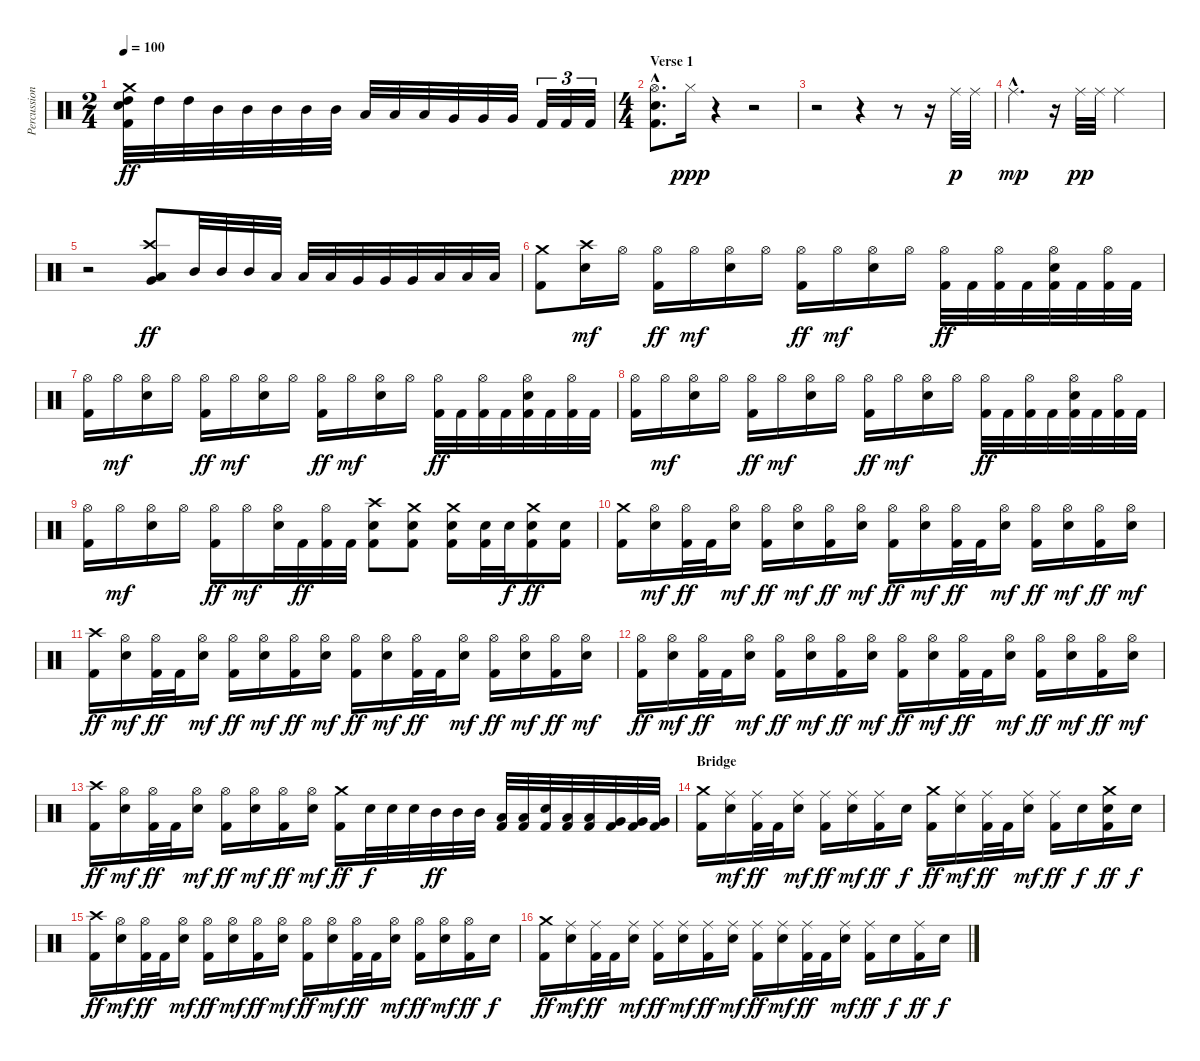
\track ("Percussion" "Percussion") {instrument percussion}
\staff {score}
\articulation defaults
\ts (2 4)
\tempo 100
\clef neutral
\ks c
("Crash medium (hit)" "High Tom (hit)" "Snare (hit) 2" "Kick (hit) 2").32{dy ff} "High Tom (hit)".32 "High Tom (hit)".32 "Mid Tom (hit)".32 "Mid Tom (hit)".32 "Mid Tom (hit)".32 "Mid Tom (hit)".32 "Mid Tom (hit)".32 "Low Tom (hit)".32 "Low Tom (hit)".32 "Low Tom (hit)".32 "Very Low Tom (hit)".32 "Very Low Tom (hit)".32 "Very Low Tom (hit)".32 "Kick (hit) 2".32{tu (3 2)} "Kick (hit) 2".32{tu (3 2)} "Kick (hit) 2".32{tu (3 2)} |
\ts (4 4)
\section ("" "Verse 1")
("Hi-Hat (open)"{hac} "Snare (hit) 2"{hac} "Kick (hit) 2"{hac}).8{d} "Hi-Hat (closed)".16{dy ppp} r.4 r.2 |
r.2 r.4 r.8 r.16 "Ride (middle)".32{dy p} "Ride (middle)".32 |
"Ride (middle)"{hac}.4{d dy mp} r.16 "Ride (middle)".32{dy pp} "Ride (middle)".32 "Ride (middle)".2 |
r.2 ("Crash high (hit)" "Very Low Tom (hit)" "Low Floor Tom (hit)").8{dy ff} "Mid Tom (hit)".32 "Mid Tom (hit)".32 "Mid Tom (hit)".32 "Low Tom (hit)".32 "Low Tom (hit)".32 "Low Tom (hit)".32 "Very Low Tom (hit)".32 "Very Low Tom (hit)".32 "Very Low Tom (hit)".32 "Low Floor Tom (hit)".32 "Low Floor Tom (hit)".32 "Low Floor Tom (hit)".32 |
("Crash medium (hit)" "Kick (hit) 2").8 ("Crash high (hit)" "Snare (hit) 2").16{dy mf} "Hi-Hat (open)".16 ("Hi-Hat (open)" "Kick (hit) 2").16{dy ff} "Hi-Hat (open)".16{dy mf} ("Hi-Hat (open)" "Snare (hit) 2").16 "Hi-Hat (open)".16 ("Hi-Hat (open)" "Kick (hit) 2").16{dy ff} "Hi-Hat (open)".16{dy mf} ("Hi-Hat (open)" "Snare (hit) 2").16 "Hi-Hat (open)".16 ("Hi-Hat (open)" "Kick (hit) 2").32{dy ff} "Kick (hit) 2".32 ("Hi-Hat (open)" "Kick (hit) 2").32 "Kick (hit) 2".32 ("Hi-Hat (open)" "Snare (hit) 2" "Kick (hit) 2").32 "Kick (hit) 2".32 ("Hi-Hat (open)" "Kick (hit) 2").32 "Kick (hit) 2".32 |
("Hi-Hat (open)" "Kick (hit) 2").16 "Hi-Hat (open)".16{dy mf} ("Hi-Hat (open)" "Snare (hit) 2").16 "Hi-Hat (open)".16 ("Hi-Hat (open)" "Kick (hit) 2").16{dy ff} "Hi-Hat (open)".16{dy mf} ("Hi-Hat (open)" "Snare (hit) 2").16 "Hi-Hat (open)".16 ("Hi-Hat (open)" "Kick (hit) 2").16{dy ff} "Hi-Hat (open)".16{dy mf} ("Hi-Hat (open)" "Snare (hit) 2").16 "Hi-Hat (open)".16 ("Hi-Hat (open)" "Kick (hit) 2").32{dy ff} "Kick (hit) 2".32 ("Hi-Hat (open)" "Kick (hit) 2").32 "Kick (hit) 2".32 ("Hi-Hat (open)" "Snare (hit) 2" "Kick (hit) 2").32 "Kick (hit) 2".32 ("Hi-Hat (open)" "Kick (hit) 2").32 "Kick (hit) 2".32 |
("Hi-Hat (open)" "Kick (hit) 2").16 "Hi-Hat (open)".16{dy mf} ("Hi-Hat (open)" "Snare (hit) 2").16 "Hi-Hat (open)".16 ("Hi-Hat (open)" "Kick (hit) 2").16{dy ff} "Hi-Hat (open)".16{dy mf} ("Hi-Hat (open)" "Snare (hit) 2").16 "Hi-Hat (open)".16 ("Hi-Hat (open)" "Kick (hit) 2").16{dy ff} "Hi-Hat (open)".16{dy mf} ("Hi-Hat (open)" "Snare (hit) 2").16 "Hi-Hat (open)".16 ("Hi-Hat (open)" "Kick (hit) 2").32{dy ff} "Kick (hit) 2".32 ("Hi-Hat (open)" "Kick (hit) 2").32 "Kick (hit) 2".32 ("Hi-Hat (open)" "Snare (hit) 2" "Kick (hit) 2").32 "Kick (hit) 2".32 ("Hi-Hat (open)" "Kick (hit) 2").32 "Kick (hit) 2".32 |
("Hi-Hat (open)" "Kick (hit) 2").16 "Hi-Hat (open)".16{dy mf} ("Hi-Hat (open)" "Snare (hit) 2").16 "Hi-Hat (open)".16 ("Hi-Hat (open)" "Kick (hit) 2").16{dy ff} "Hi-Hat (open)".16{dy mf} ("Hi-Hat (open)" "Snare (hit) 2").32 "Kick (hit) 2".32{dy ff} ("Hi-Hat (open)" "Kick (hit) 2").32 "Kick (hit) 2".32 ("Crash high (hit)" "Snare (hit) 2" "Kick (hit) 2").8 ("Crash medium (hit)" "Snare (hit) 2" "Kick (hit) 2").8 ("Crash medium (hit)" "Snare (hit) 2" "Kick (hit) 2").16 ("Snare (hit) 2" "Kick (hit) 2").32 "Snare (hit) 2".32{dy f} ("Crash medium (hit)" "Snare (hit) 2" "Kick (hit) 2").16{dy ff} ("Snare (hit) 2" "Kick (hit) 2").16 |
("Crash medium (hit)" "Kick (hit) 2").16 ("Hi-Hat (open)" "Snare (hit) 2").16{dy mf} ("Hi-Hat (open)" "Kick (hit) 2").32{dy ff} "Kick (hit) 2".32 ("Hi-Hat (open)" "Snare (hit) 2").16{dy mf} ("Hi-Hat (open)" "Kick (hit) 2").16{dy ff} ("Hi-Hat (open)" "Snare (hit) 2").16{dy mf} ("Hi-Hat (open)" "Kick (hit) 2").16{dy ff} ("Hi-Hat (open)" "Snare (hit) 2").16{dy mf} ("Hi-Hat (open)" "Kick (hit) 2").16{dy ff} ("Hi-Hat (open)" "Snare (hit) 2").16{dy mf} ("Hi-Hat (open)" "Kick (hit) 2").32{dy ff} "Kick (hit) 2".32 ("Hi-Hat (open)" "Snare (hit) 2").16{dy mf} ("Hi-Hat (open)" "Kick (hit) 2").16{dy ff} ("Hi-Hat (open)" "Snare (hit) 2").16{dy mf} ("Hi-Hat (open)" "Kick (hit) 2").16{dy ff} ("Hi-Hat (open)" "Snare (hit) 2").16{dy mf} |
("Crash high (hit)" "Kick (hit) 2").16{dy ff} ("Hi-Hat (open)" "Snare (hit) 2").16{dy mf} ("Hi-Hat (open)" "Kick (hit) 2").32{dy ff} "Kick (hit) 2".32 ("Hi-Hat (open)" "Snare (hit) 2").16{dy mf} ("Hi-Hat (open)" "Kick (hit) 2").16{dy ff} ("Hi-Hat (open)" "Snare (hit) 2").16{dy mf} ("Hi-Hat (open)" "Kick (hit) 2").16{dy ff} ("Hi-Hat (open)" "Snare (hit) 2").16{dy mf} ("Hi-Hat (open)" "Kick (hit) 2").16{dy ff} ("Hi-Hat (open)" "Snare (hit) 2").16{dy mf} ("Hi-Hat (open)" "Kick (hit) 2").32{dy ff} "Kick (hit) 2".32 ("Hi-Hat (open)" "Snare (hit) 2").16{dy mf} ("Hi-Hat (open)" "Kick (hit) 2").16{dy ff} ("Hi-Hat (open)" "Snare (hit) 2").16{dy mf} ("Hi-Hat (open)" "Kick (hit) 2").16{dy ff} ("Hi-Hat (open)" "Snare (hit) 2").16{dy mf} |
("Hi-Hat (open)" "Kick (hit) 2").16{dy ff} ("Hi-Hat (open)" "Snare (hit) 2").16{dy mf} ("Hi-Hat (open)" "Kick (hit) 2").32{dy ff} "Kick (hit) 2".32 ("Hi-Hat (open)" "Snare (hit) 2").16{dy mf} ("Hi-Hat (open)" "Kick (hit) 2").16{dy ff} ("Hi-Hat (open)" "Snare (hit) 2").16{dy mf} ("Hi-Hat (open)" "Kick (hit) 2").16{dy ff} ("Hi-Hat (open)" "Snare (hit) 2").16{dy mf} ("Hi-Hat (open)" "Kick (hit) 2").16{dy ff} ("Hi-Hat (open)" "Snare (hit) 2").16{dy mf} ("Hi-Hat (open)" "Kick (hit) 2").32{dy ff} "Kick (hit) 2".32 ("Hi-Hat (open)" "Snare (hit) 2").16{dy mf} ("Hi-Hat (open)" "Kick (hit) 2").16{dy ff} ("Hi-Hat (open)" "Snare (hit) 2").16{dy mf} ("Hi-Hat (open)" "Kick (hit) 2").16{dy ff} ("Hi-Hat (open)" "Snare (hit) 2").16{dy mf} |
("Crash high (hit)" "Kick (hit) 2").16{dy ff} ("Hi-Hat (open)" "Snare (hit) 2").16{dy mf} ("Hi-Hat (open)" "Kick (hit) 2").32{dy ff} "Kick (hit) 2".32 ("Hi-Hat (open)" "Snare (hit) 2").16{dy mf} ("Hi-Hat (open)" "Kick (hit) 2").16{dy ff} ("Hi-Hat (open)" "Snare (hit) 2").16{dy mf} ("Hi-Hat (open)" "Kick (hit) 2").16{dy ff} ("Hi-Hat (open)" "Snare (hit) 2").16{dy mf} ("Crash medium (hit)" "Kick (hit) 2").16{dy ff} "Snare (hit) 2".32{dy f} "Snare (hit) 2".32 "Snare (hit) 2".32 "Mid Tom (hit)".32{dy ff} "Mid Tom (hit)".32 "Mid Tom (hit)".32 ("Low Tom (hit)" "Kick (hit) 2").32 ("Low Tom (hit)" "Kick (hit) 2").32 ("Snare (hit) 2" "Kick (hit) 2").32 ("Low Tom (hit)" "Kick (hit) 2").32 ("Low Tom (hit)" "Kick (hit) 2").32 ("Very Low Tom (hit)" "Kick (hit) 2").32 ("Very Low Tom (hit)" "Kick (hit) 2").32 ("Very Low Tom (hit)" "Kick (hit) 2").32 |
\section ("" "Bridge")
("Crash medium (hit)" "Kick (hit) 2").16 ("Ride (middle)" "Snare (hit) 2").16{dy mf} ("Ride (middle)" "Kick (hit) 2").32{dy ff} "Kick (hit) 2".32 ("Ride (middle)" "Snare (hit) 2").16{dy mf} ("Ride (middle)" "Kick (hit) 2").16{dy ff} ("Ride (middle)" "Snare (hit) 2").16{dy mf} ("Ride (middle)" "Kick (hit) 2").16{dy ff} "Snare (hit) 2".16{dy f} ("Crash medium (hit)" "Kick (hit) 2").16{dy ff} ("Ride (middle)" "Snare (hit) 2").16{dy mf} ("Ride (middle)" "Kick (hit) 2").32{dy ff} "Kick (hit) 2".32 ("Ride (middle)" "Snare (hit) 2").16{dy mf} ("Ride (middle)" "Kick (hit) 2").16{dy ff} "Snare (hit) 2".16{dy f} ("Crash medium (hit)" "Snare (hit) 2" "Kick (hit) 2").16{dy ff} "Snare (hit) 2".16{dy f} |
("Crash high (hit)" "Kick (hit) 2").16{dy ff} ("Hi-Hat (open)" "Snare (hit) 2").16{dy mf} ("Hi-Hat (open)" "Kick (hit) 2").32{dy ff} "Kick (hit) 2".32 ("Hi-Hat (open)" "Snare (hit) 2").16{dy mf} ("Hi-Hat (open)" "Kick (hit) 2").16{dy ff} ("Hi-Hat (open)" "Snare (hit) 2").16{dy mf} ("Hi-Hat (open)" "Kick (hit) 2").16{dy ff} ("Hi-Hat (open)" "Snare (hit) 2").16{dy mf} ("Hi-Hat (open)" "Kick (hit) 2").16{dy ff} ("Hi-Hat (open)" "Snare (hit) 2").16{dy mf} ("Hi-Hat (open)" "Kick (hit) 2").32{dy ff} "Kick (hit) 2".32 ("Hi-Hat (open)" "Snare (hit) 2").16{dy mf} ("Hi-Hat (open)" "Kick (hit) 2").16{dy ff} ("Hi-Hat (open)" "Snare (hit) 2").16{dy mf} ("Hi-Hat (open)" "Kick (hit) 2").16{dy ff} "Snare (hit) 2".16{dy f} |
("Crash medium (hit)" "Kick (hit) 2").16{dy ff} ("Ride (middle)" "Snare (hit) 2").16{dy mf} ("Ride (middle)" "Kick (hit) 2").32{dy ff} "Kick (hit) 2".32 ("Ride (middle)" "Snare (hit) 2").16{dy mf} ("Ride (middle)" "Kick (hit) 2").16{dy ff} ("Ride (middle)" "Snare (hit) 2").16{dy mf} ("Ride (middle)" "Kick (hit) 2").16{dy ff} ("Ride (middle)" "Snare (hit) 2").16{dy mf} ("Ride (middle)" "Kick (hit) 2").16{dy ff} ("Ride (middle)" "Snare (hit) 2").16{dy mf} ("Ride (middle)" "Kick (hit) 2").32{dy ff} "Kick (hit) 2".32 ("Ride (middle)" "Snare (hit) 2").16{dy mf} ("Ride (middle)" "Kick (hit) 2").16{dy ff} "Snare (hit) 2".16{dy f} ("Ride (middle)" "Kick (hit) 2").16{dy ff} "Snare (hit) 2".16{dy f}
